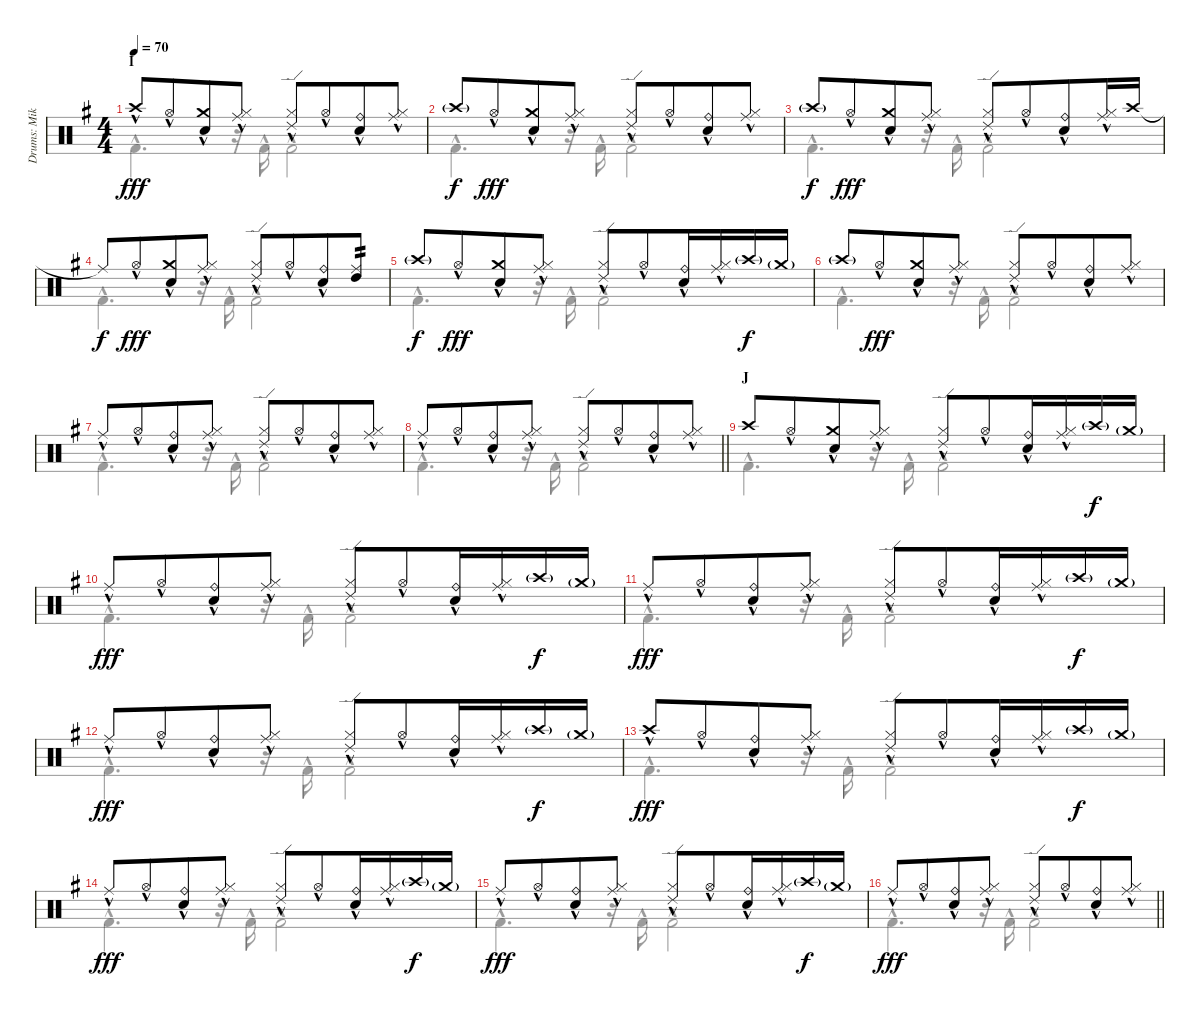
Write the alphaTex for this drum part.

\track ("Drums: Mike" "Drums: Mik") {instrument percussion}
\staff {score}
\articulation defaults
\voice
\ts (4 4)
\section ("" "I")
\tempo 70
\clef neutral
\ks g "Crash high (hit)"{hac}.8{dy fff} "Hi-Hat (open)"{hac}.8{beam merge}
("Crash medium (hit)"{hac} "Snare (hit) 2"{hac}).8 ("Ride (middle)"{hac} "Hi-Hat (closed)"{hac}).8 ("Ride (edge) 2"{hac} "Hi-Hat (closed)"{hac}).8 "Hi-Hat (open)"{hac}.8{beam merge} ("Ride (bell)"{hac} "Snare (hit) 2"{hac}).8 ("Ride (middle)"{hac} "Hi-Hat (closed)"{hac}).8 |
"Crash high (hit)"{g}.8{dy f} "Hi-Hat (open)"{hac}.8{dy fff beam merge} ("Crash medium (hit)"{hac} "Snare (hit) 2"{hac}).8 ("Ride (middle)"{hac} "Hi-Hat (closed)"{hac}).8 ("Ride (edge) 2"{hac} "Hi-Hat (closed)"{hac}).8 "Hi-Hat (open)"{hac}.8{beam merge} ("Ride (bell)"{hac} "Snare (hit) 2"{hac}).8 ("Ride (middle)"{hac} "Hi-Hat (closed)"{hac}).8 |
"Crash high (hit)"{g}.8{dy f} "Hi-Hat (open)"{hac}.8{dy fff beam merge} ("Crash medium (hit)"{hac} "Snare (hit) 2"{hac}).8 ("Ride (middle)"{hac} "Hi-Hat (closed)"{hac}).8 ("Ride (edge) 2"{hac} "Hi-Hat (closed)"{hac}).8 "Hi-Hat (open)"{hac}.8{beam merge} ("Ride (bell)"{hac} "Snare (hit) 2"{hac}).8 ("Ride (middle)"{hac} "Hi-Hat (closed)"{hac}).16 "Crash high (hit)".16 |
"Ride (middle)"{t}.8{dy f} "Hi-Hat (open)"{hac}.8{dy fff beam merge} ("Crash medium (hit)"{hac} "Snare (hit) 2"{hac}).8 ("Ride (middle)"{hac} "Hi-Hat (closed)"{hac}).8 ("Ride (edge) 2"{hac} "Hi-Hat (closed)"{hac}).8 "Hi-Hat (open)"{hac}.8{beam merge} ("Ride (bell)"{hac} "Snare (hit) 2"{hac}).8 ("Ride (middle)" "High Tom (hit)").8{tp 2} |
"Crash high (hit)"{g}.8{dy f} "Hi-Hat (open)"{hac}.8{dy fff beam merge} ("Crash medium (hit)"{hac} "Snare (hit) 2"{hac}).8 ("Ride (middle)"{hac} "Hi-Hat (closed)"{hac}).8 ("Ride (edge) 2"{hac} "Hi-Hat (closed)"{hac}).8 "Hi-Hat (open)"{hac}.8{beam merge} ("Ride (bell)"{hac} "Snare (hit) 2"{hac}).16 ("Ride (middle)"{hac} "Hi-Hat (closed)"{hac}).16 "Crash high (hit)"{g}.16{dy f} "Crash medium (hit)"{g}.16 |
"Crash high (hit)"{g}.8 "Hi-Hat (open)"{hac}.8{dy fff beam merge} ("Crash medium (hit)"{hac} "Snare (hit) 2"{hac}).8 ("Ride (middle)"{hac} "Hi-Hat (closed)"{hac}).8 ("Ride (edge) 2"{hac} "Hi-Hat (closed)"{hac}).8 "Hi-Hat (open)"{hac}.8{beam merge} ("Ride (bell)"{hac} "Snare (hit) 2"{hac}).8 ("Ride (middle)"{hac} "Hi-Hat (closed)"{hac}).8 |
"Ride (middle)"{hac}.8 "Hi-Hat (open)"{hac}.8{beam merge} ("Ride (bell)"{hac} "Snare (hit) 2"{hac}).8 ("Ride (middle)"{hac} "Hi-Hat (closed)"{hac}).8 ("Ride (edge) 2"{hac} "Hi-Hat (closed)"{hac}).8 "Hi-Hat (open)"{hac}.8{beam merge} ("Ride (bell)"{hac} "Snare (hit) 2"{hac}).8 ("Ride (middle)"{hac} "Hi-Hat (closed)"{hac}).8 |
\barLineRight lightlight "Ride (middle)"{hac}.8 "Hi-Hat (open)"{hac}.8{beam merge}
("Ride (bell)"{hac} "Snare (hit) 2"{hac}).8 ("Ride (middle)"{hac} "Hi-Hat (closed)"{hac}).8 ("Ride (edge) 2"{hac} "Hi-Hat (closed)"{hac}).8 "Hi-Hat (open)"{hac}.8{beam merge} ("Ride (bell)"{hac} "Snare (hit) 2"{hac}).8 ("Ride (middle)"{hac} "Hi-Hat (closed)"{hac}).8 |
\section ("" "J")
"Crash high (hit)".8 "Hi-Hat (open)"{hac}.8{beam merge} ("Crash medium (hit)"{hac} "Snare (hit) 2"{hac}).8 ("Ride (middle)"{hac} "Hi-Hat (closed)"{hac}).8 ("Ride (edge) 2"{hac} "Hi-Hat (closed)"{hac}).8 "Hi-Hat (open)"{hac}.8{beam merge} ("Ride (bell)"{hac} "Snare (hit) 2"{hac}).16 ("Ride (middle)"{hac} "Hi-Hat (closed)"{hac}).16 "Crash high (hit)"{g}.16{dy f} "Crash medium (hit)"{g}.16 |
"Ride (middle)"{hac}.8{dy fff} "Hi-Hat (open)"{hac}.8{beam merge} ("Ride (bell)"{hac} "Snare (hit) 2"{hac}).8 ("Ride (middle)"{hac} "Hi-Hat (closed)"{hac}).8 ("Ride (edge) 2"{hac} "Hi-Hat (closed)"{hac}).8 "Hi-Hat (open)"{hac}.8{beam merge} ("Ride (bell)"{hac} "Snare (hit) 2"{hac}).16 ("Ride (middle)"{hac} "Hi-Hat (closed)"{hac}).16 "Crash high (hit)"{g}.16{dy f} "Crash medium (hit)"{g}.16 |
"Ride (middle)"{hac}.8{dy fff} "Hi-Hat (open)"{hac}.8{beam merge} ("Ride (bell)"{hac} "Snare (hit) 2"{hac}).8 ("Ride (middle)"{hac} "Hi-Hat (closed)"{hac}).8 ("Ride (edge) 2"{hac} "Hi-Hat (closed)"{hac}).8 "Hi-Hat (open)"{hac}.8{beam merge} ("Ride (bell)"{hac} "Snare (hit) 2"{hac}).16 ("Ride (middle)"{hac} "Hi-Hat (closed)"{hac}).16 "Crash high (hit)"{g}.16{dy f} "Crash medium (hit)"{g}.16 |
"Ride (middle)"{hac}.8{dy fff} "Hi-Hat (open)"{hac}.8{beam merge} ("Ride (bell)"{hac} "Snare (hit) 2"{hac}).8 ("Ride (middle)"{hac} "Hi-Hat (closed)"{hac}).8 ("Ride (edge) 2"{hac} "Hi-Hat (closed)"{hac}).8 "Hi-Hat (open)"{hac}.8{beam merge} ("Ride (bell)"{hac} "Snare (hit) 2"{hac}).16 ("Ride (middle)"{hac} "Hi-Hat (closed)"{hac}).16 "Crash high (hit)"{g}.16{dy f} "Crash medium (hit)"{g}.16 |
"Crash high (hit)"{hac}.8{dy fff} "Hi-Hat (open)"{hac}.8{beam merge} ("Ride (bell)"{hac} "Snare (hit) 2"{hac}).8 ("Ride (middle)"{hac} "Hi-Hat (closed)"{hac}).8 ("Ride (edge) 2"{hac} "Hi-Hat (closed)"{hac}).8 "Hi-Hat (open)"{hac}.8{beam merge} ("Ride (bell)"{hac} "Snare (hit) 2"{hac}).16 ("Ride (middle)"{hac} "Hi-Hat (closed)"{hac}).16 "Crash high (hit)"{g}.16{dy f} "Crash medium (hit)"{g}.16 |
"Ride (middle)"{hac}.8{dy fff} "Hi-Hat (open)"{hac}.8{beam merge} ("Ride (bell)"{hac} "Snare (hit) 2"{hac}).8 ("Ride (middle)"{hac} "Hi-Hat (closed)"{hac}).8 ("Ride (edge) 2"{hac} "Hi-Hat (closed)"{hac}).8 "Hi-Hat (open)"{hac}.8{beam merge} ("Ride (bell)"{hac} "Snare (hit) 2"{hac}).16 ("Ride (middle)"{hac} "Hi-Hat (closed)"{hac}).16 "Crash high (hit)"{g}.16{dy f} "Crash medium (hit)"{g}.16 |
"Ride (middle)"{hac}.8{dy fff} "Hi-Hat (open)"{hac}.8{beam merge} ("Ride (bell)"{hac} "Snare (hit) 2"{hac}).8 ("Ride (middle)"{hac} "Hi-Hat (closed)"{hac}).8 ("Ride (edge) 2"{hac} "Hi-Hat (closed)"{hac}).8 "Hi-Hat (open)"{hac}.8{beam merge} ("Ride (bell)"{hac} "Snare (hit) 2"{hac}).16 ("Ride (middle)"{hac} "Hi-Hat (closed)"{hac}).16 "Crash high (hit)"{g}.16{dy f} "Crash medium (hit)"{g}.16 |
\barLineRight lightlight "Ride (middle)"{hac}.8{dy fff} "Hi-Hat (open)"{hac}.8{beam merge}
("Ride (bell)"{hac} "Snare (hit) 2"{hac}).8 ("Ride (middle)"{hac} "Hi-Hat (closed)"{hac}).8 ("Ride (edge) 2"{hac} "Hi-Hat (closed)"{hac}).8 "Hi-Hat (open)"{hac}.8{beam merge} ("Ride (bell)"{hac} "Snare (hit) 2"{hac}).8 ("Ride (middle)"{hac} "Hi-Hat (closed)"{hac}).8
\voice
\clef neutral
\ottava regular
\simile none
\ks g "Kick (hit) 2"{hac}.4{d dy fff}
r.16 "Kick (hit) 2"{hac}.16 "Kick (hit) 2"{hac}.2 |
"Kick (hit) 2"{hac}.4{d} r.16 "Kick (hit) 2"{hac}.16 "Kick (hit) 2"{hac}.2 |
"Kick (hit) 2"{hac}.4{d} r.16 "Kick (hit) 2"{hac}.16 "Kick (hit) 2"{hac}.2 |
"Kick (hit) 2"{hac}.4{d} r.16 "Kick (hit) 2"{hac}.16 "Kick (hit) 2"{hac}.2 |
"Kick (hit) 2"{hac}.4{d} r.16 "Kick (hit) 2"{hac}.16 "Kick (hit) 2"{hac}.2 |
"Kick (hit) 2"{hac}.4{d} r.16 "Kick (hit) 2"{hac}.16 "Kick (hit) 2"{hac}.2 |
"Kick (hit) 2"{hac}.4{d} r.16 "Kick (hit) 2"{hac}.16 "Kick (hit) 2"{hac}.2 |
\barLineRight lightlight "Kick (hit) 2"{hac}.4{d}
r.16 "Kick (hit) 2"{hac}.16 "Kick (hit) 2"{hac}.2 |
"Kick (hit) 2"{hac}.4{d} r.16 "Kick (hit) 2"{hac}.16 "Kick (hit) 2"{hac}.2 |
"Kick (hit) 2"{hac}.4{d} r.16 "Kick (hit) 2"{hac}.16 "Kick (hit) 2"{hac}.2 |
"Kick (hit) 2"{hac}.4{d} r.16 "Kick (hit) 2"{hac}.16 "Kick (hit) 2"{hac}.2 |
"Kick (hit) 2"{hac}.4{d} r.16 "Kick (hit) 2"{hac}.16 "Kick (hit) 2"{hac}.2 |
"Kick (hit) 2"{hac}.4{d} r.16 "Kick (hit) 2"{hac}.16 "Kick (hit) 2"{hac}.2 |
"Kick (hit) 2"{hac}.4{d} r.16 "Kick (hit) 2"{hac}.16 "Kick (hit) 2"{hac}.2 |
"Kick (hit) 2"{hac}.4{d} r.16 "Kick (hit) 2"{hac}.16 "Kick (hit) 2"{hac}.2 |
\barLineRight lightlight "Kick (hit) 2"{hac}.4{d}
r.16 "Kick (hit) 2"{hac}.16 "Kick (hit) 2"{hac}.2
